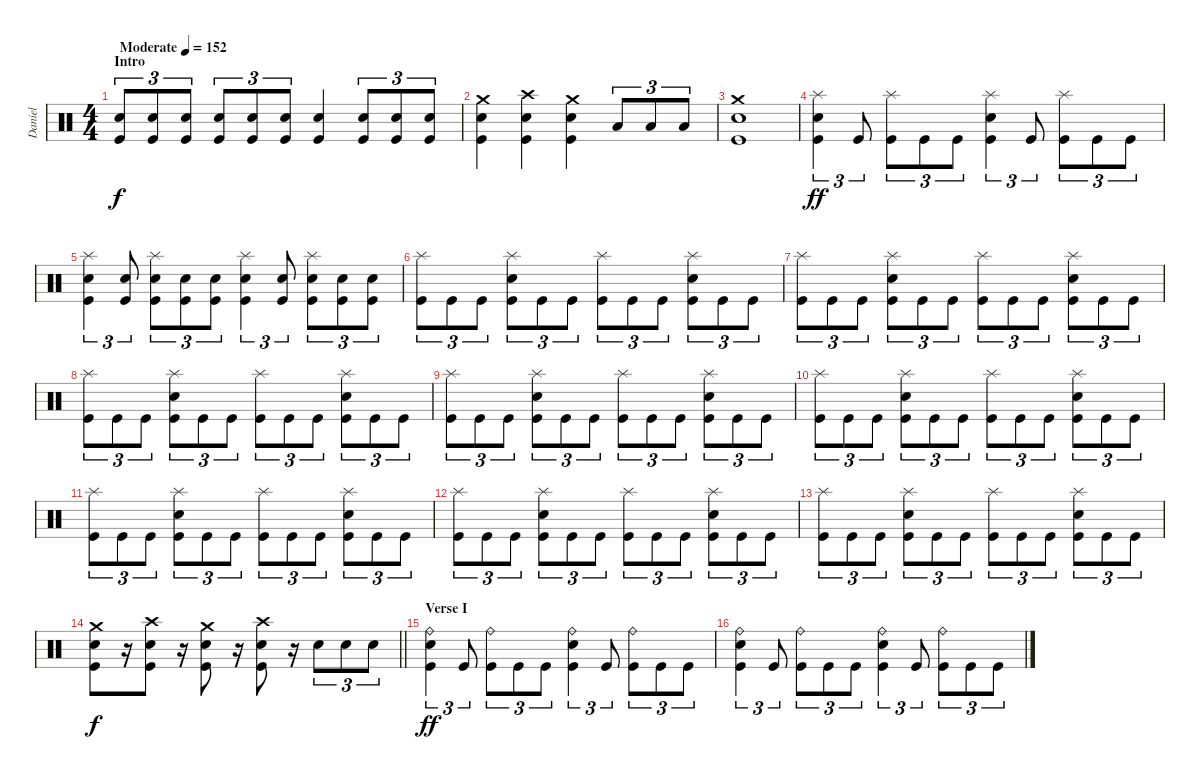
\track ("Daniel" "Daniel") {instrument percussion}
\staff {score}
\articulation defaults
\ts (4 4)
\section ("" "Intro")
\tempo (152 "Moderate")
\clef neutral
\ks c
("Kick (hit)" "Snare (hit) 2").8{tu (3 2) dy f} ("Kick (hit)" "Snare (hit) 2").8{tu (3 2)} ("Kick (hit)" "Snare (hit) 2").8{tu (3 2)} ("Kick (hit)" "Snare (hit) 2").8{tu (3 2)} ("Kick (hit)" "Snare (hit) 2").8{tu (3 2)} ("Kick (hit)" "Snare (hit) 2").8{tu (3 2)} ("Kick (hit)" "Snare (hit) 2").4 ("Kick (hit)" "Snare (hit) 2").8{tu (3 2)} ("Kick (hit)" "Snare (hit) 2").8{tu (3 2)} ("Kick (hit)" "Snare (hit) 2").8{tu (3 2)} |
("Kick (hit)" "Snare (hit) 2" "Crash medium (hit)").4 ("Kick (hit)" "Snare (hit) 2" "Crash high (hit)").4 ("Kick (hit)" "Snare (hit) 2" "Crash medium (hit)").4 "Low Tom (hit)".8{tu (3 2)} "Low Tom (hit)".8{tu (3 2)} "Low Tom (hit)".8{tu (3 2)} |
("Kick (hit)" "Snare (hit) 2" "Crash medium (hit)").1 |
("Kick (hit)" "Snare (hit) 2" "Splash (hit)").4{tu (3 2) dy ff} "Kick (hit)".8{tu (3 2)} ("Kick (hit)" "Splash (hit)").8{tu (3 2)} "Kick (hit)".8{tu (3 2)} "Kick (hit)".8{tu (3 2)} ("Kick (hit)" "Snare (hit) 2" "Splash (hit)").4{tu (3 2)} "Kick (hit)".8{tu (3 2)} ("Kick (hit)" "Splash (hit)").8{tu (3 2)} "Kick (hit)".8{tu (3 2)} "Kick (hit)".8{tu (3 2)} |
("Kick (hit)" "Snare (hit) 2" "Splash (hit)").4{tu (3 2)} ("Kick (hit)" "Snare (hit) 2").8{tu (3 2)} ("Kick (hit)" "Snare (hit) 2" "Splash (hit)").8{tu (3 2)} ("Kick (hit)" "Snare (hit) 2").8{tu (3 2)} ("Kick (hit)" "Snare (hit) 2").8{tu (3 2)} ("Kick (hit)" "Snare (hit) 2" "Splash (hit)").4{tu (3 2)} ("Kick (hit)" "Snare (hit) 2").8{tu (3 2)} ("Kick (hit)" "Snare (hit) 2" "Splash (hit)").8{tu (3 2)} ("Kick (hit)" "Snare (hit) 2").8{tu (3 2)} ("Kick (hit)" "Snare (hit) 2").8{tu (3 2)} |
("Kick (hit)" "Splash (hit)").8{tu (3 2)} "Kick (hit)".8{tu (3 2)} "Kick (hit)".8{tu (3 2)} ("Kick (hit)" "Snare (hit) 2" "Splash (hit)").8{tu (3 2)} "Kick (hit)".8{tu (3 2)} "Kick (hit)".8{tu (3 2)} ("Kick (hit)" "Splash (hit)").8{tu (3 2)} "Kick (hit)".8{tu (3 2)} "Kick (hit)".8{tu (3 2)} ("Kick (hit)" "Snare (hit) 2" "Splash (hit)").8{tu (3 2)} "Kick (hit)".8{tu (3 2)} "Kick (hit)".8{tu (3 2)} |
("Kick (hit)" "Splash (hit)").8{tu (3 2)} "Kick (hit)".8{tu (3 2)} "Kick (hit)".8{tu (3 2)} ("Kick (hit)" "Snare (hit) 2" "Splash (hit)").8{tu (3 2)} "Kick (hit)".8{tu (3 2)} "Kick (hit)".8{tu (3 2)} ("Kick (hit)" "Splash (hit)").8{tu (3 2)} "Kick (hit)".8{tu (3 2)} "Kick (hit)".8{tu (3 2)} ("Kick (hit)" "Snare (hit) 2" "Splash (hit)").8{tu (3 2)} "Kick (hit)".8{tu (3 2)} "Kick (hit)".8{tu (3 2)} |
("Kick (hit)" "Splash (hit)").8{tu (3 2)} "Kick (hit)".8{tu (3 2)} "Kick (hit)".8{tu (3 2)} ("Kick (hit)" "Snare (hit) 2" "Splash (hit)").8{tu (3 2)} "Kick (hit)".8{tu (3 2)} "Kick (hit)".8{tu (3 2)} ("Kick (hit)" "Splash (hit)").8{tu (3 2)} "Kick (hit)".8{tu (3 2)} "Kick (hit)".8{tu (3 2)} ("Kick (hit)" "Snare (hit) 2" "Splash (hit)").8{tu (3 2)} "Kick (hit)".8{tu (3 2)} "Kick (hit)".8{tu (3 2)} |
("Kick (hit)" "Splash (hit)").8{tu (3 2)} "Kick (hit)".8{tu (3 2)} "Kick (hit)".8{tu (3 2)} ("Kick (hit)" "Snare (hit) 2" "Splash (hit)").8{tu (3 2)} "Kick (hit)".8{tu (3 2)} "Kick (hit)".8{tu (3 2)} ("Kick (hit)" "Splash (hit)").8{tu (3 2)} "Kick (hit)".8{tu (3 2)} "Kick (hit)".8{tu (3 2)} ("Kick (hit)" "Snare (hit) 2" "Splash (hit)").8{tu (3 2)} "Kick (hit)".8{tu (3 2)} "Kick (hit)".8{tu (3 2)} |
("Kick (hit)" "Splash (hit)").8{tu (3 2)} "Kick (hit)".8{tu (3 2)} "Kick (hit)".8{tu (3 2)} ("Kick (hit)" "Snare (hit) 2" "Splash (hit)").8{tu (3 2)} "Kick (hit)".8{tu (3 2)} "Kick (hit)".8{tu (3 2)} ("Kick (hit)" "Splash (hit)").8{tu (3 2)} "Kick (hit)".8{tu (3 2)} "Kick (hit)".8{tu (3 2)} ("Kick (hit)" "Snare (hit) 2" "Splash (hit)").8{tu (3 2)} "Kick (hit)".8{tu (3 2)} "Kick (hit)".8{tu (3 2)} |
("Kick (hit)" "Splash (hit)").8{tu (3 2)} "Kick (hit)".8{tu (3 2)} "Kick (hit)".8{tu (3 2)} ("Kick (hit)" "Snare (hit) 2" "Splash (hit)").8{tu (3 2)} "Kick (hit)".8{tu (3 2)} "Kick (hit)".8{tu (3 2)} ("Kick (hit)" "Splash (hit)").8{tu (3 2)} "Kick (hit)".8{tu (3 2)} "Kick (hit)".8{tu (3 2)} ("Kick (hit)" "Snare (hit) 2" "Splash (hit)").8{tu (3 2)} "Kick (hit)".8{tu (3 2)} "Kick (hit)".8{tu (3 2)} |
("Kick (hit)" "Splash (hit)").8{tu (3 2)} "Kick (hit)".8{tu (3 2)} "Kick (hit)".8{tu (3 2)} ("Kick (hit)" "Snare (hit) 2" "Splash (hit)").8{tu (3 2)} "Kick (hit)".8{tu (3 2)} "Kick (hit)".8{tu (3 2)} ("Kick (hit)" "Splash (hit)").8{tu (3 2)} "Kick (hit)".8{tu (3 2)} "Kick (hit)".8{tu (3 2)} ("Kick (hit)" "Snare (hit) 2" "Splash (hit)").8{tu (3 2)} "Kick (hit)".8{tu (3 2)} "Kick (hit)".8{tu (3 2)} |
("Kick (hit)" "Splash (hit)").8{tu (3 2)} "Kick (hit)".8{tu (3 2)} "Kick (hit)".8{tu (3 2)} ("Kick (hit)" "Snare (hit) 2" "Splash (hit)").8{tu (3 2)} "Kick (hit)".8{tu (3 2)} "Kick (hit)".8{tu (3 2)} ("Kick (hit)" "Splash (hit)").8{tu (3 2)} "Kick (hit)".8{tu (3 2)} "Kick (hit)".8{tu (3 2)} ("Kick (hit)" "Snare (hit) 2" "Splash (hit)").8{tu (3 2)} "Kick (hit)".8{tu (3 2)} "Kick (hit)".8{tu (3 2)} |
\barLineRight lightlight
("Kick (hit)" "Snare (hit) 2" "Crash medium (hit)").8{dy f} r.16 ("Kick (hit)" "Snare (hit) 2" "Crash high (hit)").8 r.16 ("Kick (hit)" "Snare (hit) 2" "Crash medium (hit)").8 r.16 ("Kick (hit)" "Snare (hit) 2" "Crash high (hit)").8 r.16 "Snare (hit) 2".8{tu (3 2)} "Snare (hit) 2".8{tu (3 2)} "Snare (hit) 2".8{tu (3 2)} |
\section ("" "Verse I")
("Kick (hit)" "Snare (hit) 2" "Ride (bell)").4{tu (3 2) dy ff} "Kick (hit)".8{tu (3 2)} ("Kick (hit)" "Ride (bell)").8{tu (3 2)} "Kick (hit)".8{tu (3 2)} "Kick (hit)".8{tu (3 2)} ("Kick (hit)" "Snare (hit) 2" "Ride (bell)").4{tu (3 2)} "Kick (hit)".8{tu (3 2)} ("Kick (hit)" "Ride (bell)").8{tu (3 2)} "Kick (hit)".8{tu (3 2)} "Kick (hit)".8{tu (3 2)} |
("Kick (hit)" "Snare (hit) 2" "Ride (bell)").4{tu (3 2)} "Kick (hit)".8{tu (3 2)} ("Kick (hit)" "Ride (bell)").8{tu (3 2)} "Kick (hit)".8{tu (3 2)} "Kick (hit)".8{tu (3 2)} ("Kick (hit)" "Snare (hit) 2" "Ride (bell)").4{tu (3 2)} "Kick (hit)".8{tu (3 2)} ("Kick (hit)" "Ride (bell)").8{tu (3 2)} "Kick (hit)".8{tu (3 2)} "Kick (hit)".8{tu (3 2)}
